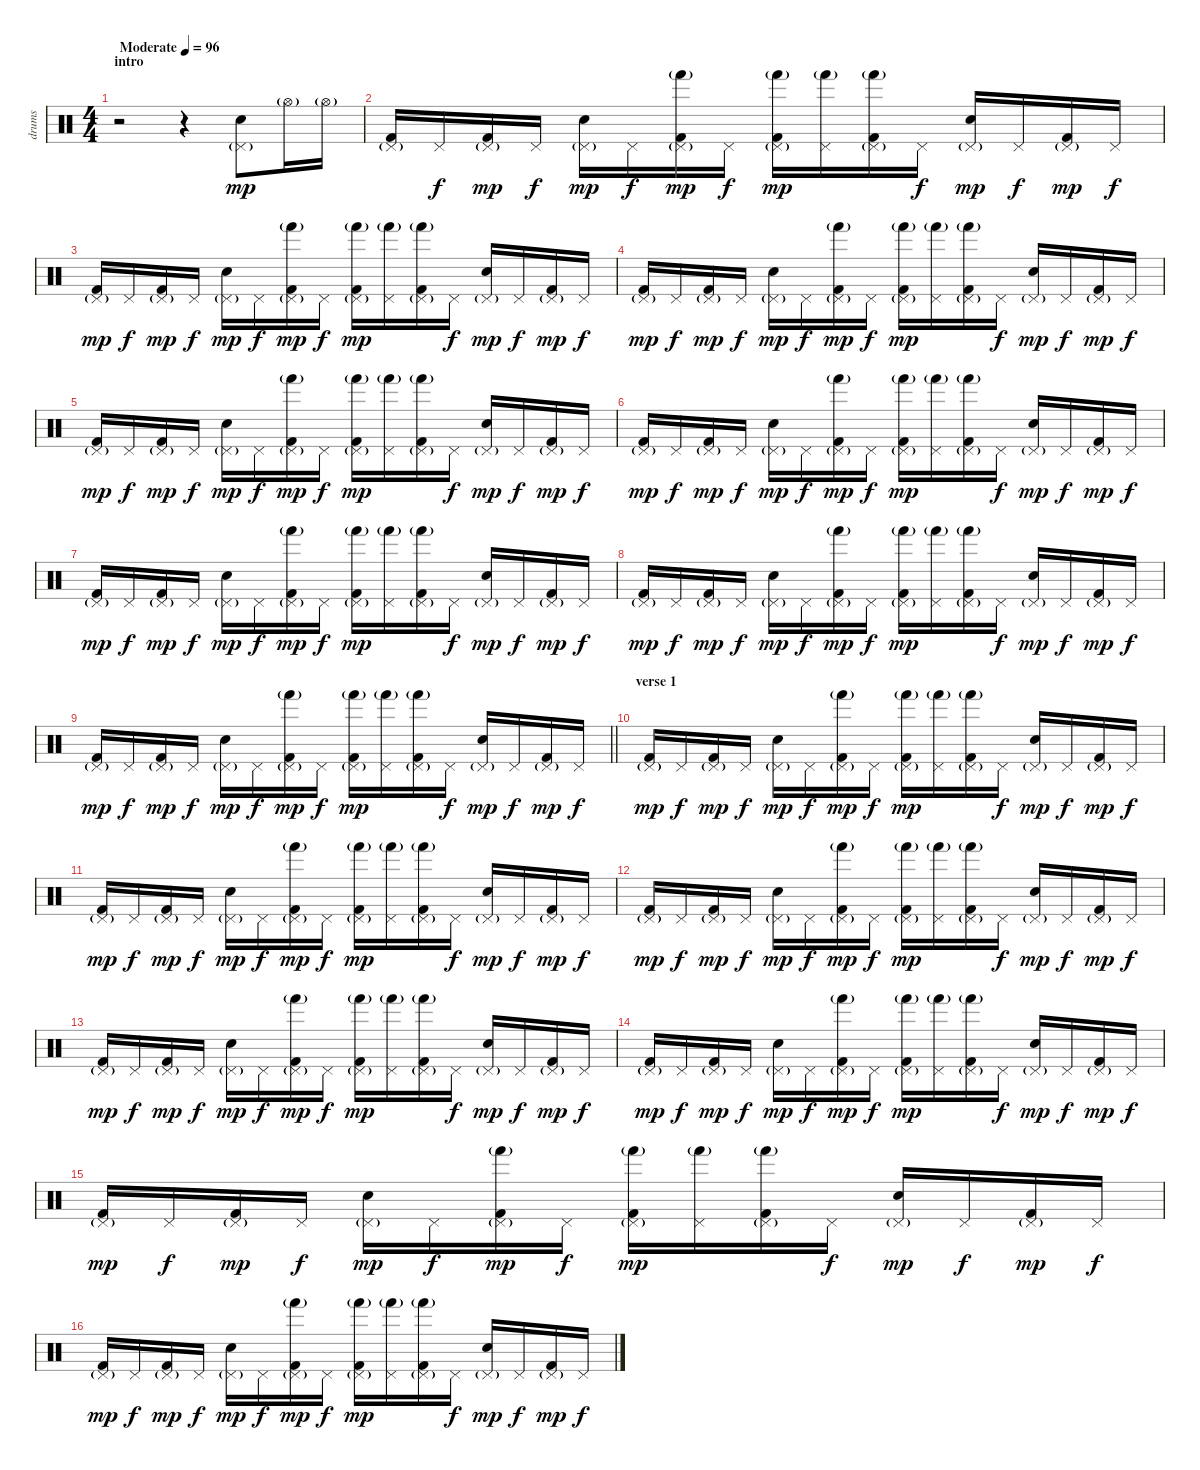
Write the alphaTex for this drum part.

\track ("drums" "drums") {instrument percussion}
\staff {score}
\articulation defaults
\ts (4 4)
\section ("" "intro")
\tempo (96 "Moderate")
\clef neutral
\ks c
r.2{dy mp} r.4 ("Snare (hit) 2" "Pedal Hi-Hat (hit)"{g}).8 "Hi-Hat (open)"{g}.16 "Hi-Hat (open)"{g}.16 |
("Kick (hit) 2" "Pedal Hi-Hat (hit)"{g}).16 "Pedal Hi-Hat (hit)".16{dy f} ("Kick (hit) 2" "Pedal Hi-Hat (hit)"{g}).16{dy mp} "Pedal Hi-Hat (hit)".16{dy f} ("Snare (hit) 2" "Pedal Hi-Hat (hit)"{g}).16{dy mp} "Pedal Hi-Hat (hit)".16{dy f} ("Kick (hit) 2" "Hand (hit)"{g} "Pedal Hi-Hat (hit)"{g}).16{dy mp} "Pedal Hi-Hat (hit)".16{dy f} ("Kick (hit) 2" "Hand (hit)"{g} "Pedal Hi-Hat (hit)"{g}).16{dy mp} ("Hand (hit)"{g} "Pedal Hi-Hat (hit)").16 ("Kick (hit) 2" "Hand (hit)"{g} "Pedal Hi-Hat (hit)"{g}).16 "Pedal Hi-Hat (hit)".16{dy f} ("Snare (hit) 2" "Pedal Hi-Hat (hit)"{g}).16{dy mp} "Pedal Hi-Hat (hit)".16{dy f} ("Kick (hit) 2" "Pedal Hi-Hat (hit)"{g}).16{dy mp} "Pedal Hi-Hat (hit)".16{dy f} |
("Kick (hit) 2" "Pedal Hi-Hat (hit)"{g}).16{dy mp} "Pedal Hi-Hat (hit)".16{dy f} ("Kick (hit) 2" "Pedal Hi-Hat (hit)"{g}).16{dy mp} "Pedal Hi-Hat (hit)".16{dy f} ("Snare (hit) 2" "Pedal Hi-Hat (hit)"{g}).16{dy mp} "Pedal Hi-Hat (hit)".16{dy f} ("Kick (hit) 2" "Hand (hit)"{g} "Pedal Hi-Hat (hit)"{g}).16{dy mp} "Pedal Hi-Hat (hit)".16{dy f} ("Kick (hit) 2" "Hand (hit)"{g} "Pedal Hi-Hat (hit)"{g}).16{dy mp} ("Hand (hit)"{g} "Pedal Hi-Hat (hit)").16 ("Kick (hit) 2" "Hand (hit)"{g} "Pedal Hi-Hat (hit)"{g}).16 "Pedal Hi-Hat (hit)".16{dy f} ("Snare (hit) 2" "Pedal Hi-Hat (hit)"{g}).16{dy mp} "Pedal Hi-Hat (hit)".16{dy f} ("Kick (hit) 2" "Pedal Hi-Hat (hit)"{g}).16{dy mp} "Pedal Hi-Hat (hit)".16{dy f} |
("Kick (hit) 2" "Pedal Hi-Hat (hit)"{g}).16{dy mp} "Pedal Hi-Hat (hit)".16{dy f} ("Kick (hit) 2" "Pedal Hi-Hat (hit)"{g}).16{dy mp} "Pedal Hi-Hat (hit)".16{dy f} ("Snare (hit) 2" "Pedal Hi-Hat (hit)"{g}).16{dy mp} "Pedal Hi-Hat (hit)".16{dy f} ("Kick (hit) 2" "Hand (hit)"{g} "Pedal Hi-Hat (hit)"{g}).16{dy mp} "Pedal Hi-Hat (hit)".16{dy f} ("Kick (hit) 2" "Hand (hit)"{g} "Pedal Hi-Hat (hit)"{g}).16{dy mp} ("Hand (hit)"{g} "Pedal Hi-Hat (hit)").16 ("Kick (hit) 2" "Hand (hit)"{g} "Pedal Hi-Hat (hit)"{g}).16 "Pedal Hi-Hat (hit)".16{dy f} ("Snare (hit) 2" "Pedal Hi-Hat (hit)"{g}).16{dy mp} "Pedal Hi-Hat (hit)".16{dy f} ("Kick (hit) 2" "Pedal Hi-Hat (hit)"{g}).16{dy mp} "Pedal Hi-Hat (hit)".16{dy f} |
("Kick (hit) 2" "Pedal Hi-Hat (hit)"{g}).16{dy mp} "Pedal Hi-Hat (hit)".16{dy f} ("Kick (hit) 2" "Pedal Hi-Hat (hit)"{g}).16{dy mp} "Pedal Hi-Hat (hit)".16{dy f} ("Snare (hit) 2" "Pedal Hi-Hat (hit)"{g}).16{dy mp} "Pedal Hi-Hat (hit)".16{dy f} ("Kick (hit) 2" "Hand (hit)"{g} "Pedal Hi-Hat (hit)"{g}).16{dy mp} "Pedal Hi-Hat (hit)".16{dy f} ("Kick (hit) 2" "Hand (hit)"{g} "Pedal Hi-Hat (hit)"{g}).16{dy mp} ("Hand (hit)"{g} "Pedal Hi-Hat (hit)").16 ("Kick (hit) 2" "Hand (hit)"{g} "Pedal Hi-Hat (hit)"{g}).16 "Pedal Hi-Hat (hit)".16{dy f} ("Snare (hit) 2" "Pedal Hi-Hat (hit)"{g}).16{dy mp} "Pedal Hi-Hat (hit)".16{dy f} ("Kick (hit) 2" "Pedal Hi-Hat (hit)"{g}).16{dy mp} "Pedal Hi-Hat (hit)".16{dy f} |
("Kick (hit) 2" "Pedal Hi-Hat (hit)"{g}).16{dy mp} "Pedal Hi-Hat (hit)".16{dy f} ("Kick (hit) 2" "Pedal Hi-Hat (hit)"{g}).16{dy mp} "Pedal Hi-Hat (hit)".16{dy f} ("Snare (hit) 2" "Pedal Hi-Hat (hit)"{g}).16{dy mp} "Pedal Hi-Hat (hit)".16{dy f} ("Kick (hit) 2" "Hand (hit)"{g} "Pedal Hi-Hat (hit)"{g}).16{dy mp} "Pedal Hi-Hat (hit)".16{dy f} ("Kick (hit) 2" "Hand (hit)"{g} "Pedal Hi-Hat (hit)"{g}).16{dy mp} ("Hand (hit)"{g} "Pedal Hi-Hat (hit)").16 ("Kick (hit) 2" "Hand (hit)"{g} "Pedal Hi-Hat (hit)"{g}).16 "Pedal Hi-Hat (hit)".16{dy f} ("Snare (hit) 2" "Pedal Hi-Hat (hit)"{g}).16{dy mp} "Pedal Hi-Hat (hit)".16{dy f} ("Kick (hit) 2" "Pedal Hi-Hat (hit)"{g}).16{dy mp} "Pedal Hi-Hat (hit)".16{dy f} |
("Kick (hit) 2" "Pedal Hi-Hat (hit)"{g}).16{dy mp} "Pedal Hi-Hat (hit)".16{dy f} ("Kick (hit) 2" "Pedal Hi-Hat (hit)"{g}).16{dy mp} "Pedal Hi-Hat (hit)".16{dy f} ("Snare (hit) 2" "Pedal Hi-Hat (hit)"{g}).16{dy mp} "Pedal Hi-Hat (hit)".16{dy f} ("Kick (hit) 2" "Hand (hit)"{g} "Pedal Hi-Hat (hit)"{g}).16{dy mp} "Pedal Hi-Hat (hit)".16{dy f} ("Kick (hit) 2" "Hand (hit)"{g} "Pedal Hi-Hat (hit)"{g}).16{dy mp} ("Hand (hit)"{g} "Pedal Hi-Hat (hit)").16 ("Kick (hit) 2" "Hand (hit)"{g} "Pedal Hi-Hat (hit)"{g}).16 "Pedal Hi-Hat (hit)".16{dy f} ("Snare (hit) 2" "Pedal Hi-Hat (hit)"{g}).16{dy mp} "Pedal Hi-Hat (hit)".16{dy f} ("Kick (hit) 2" "Pedal Hi-Hat (hit)"{g}).16{dy mp} "Pedal Hi-Hat (hit)".16{dy f} |
("Kick (hit) 2" "Pedal Hi-Hat (hit)"{g}).16{dy mp} "Pedal Hi-Hat (hit)".16{dy f} ("Kick (hit) 2" "Pedal Hi-Hat (hit)"{g}).16{dy mp} "Pedal Hi-Hat (hit)".16{dy f} ("Snare (hit) 2" "Pedal Hi-Hat (hit)"{g}).16{dy mp} "Pedal Hi-Hat (hit)".16{dy f} ("Kick (hit) 2" "Hand (hit)"{g} "Pedal Hi-Hat (hit)"{g}).16{dy mp} "Pedal Hi-Hat (hit)".16{dy f} ("Kick (hit) 2" "Hand (hit)"{g} "Pedal Hi-Hat (hit)"{g}).16{dy mp} ("Hand (hit)"{g} "Pedal Hi-Hat (hit)").16 ("Kick (hit) 2" "Hand (hit)"{g} "Pedal Hi-Hat (hit)"{g}).16 "Pedal Hi-Hat (hit)".16{dy f} ("Snare (hit) 2" "Pedal Hi-Hat (hit)"{g}).16{dy mp} "Pedal Hi-Hat (hit)".16{dy f} ("Kick (hit) 2" "Pedal Hi-Hat (hit)"{g}).16{dy mp} "Pedal Hi-Hat (hit)".16{dy f} |
\barLineRight lightlight
("Kick (hit) 2" "Pedal Hi-Hat (hit)"{g}).16{dy mp} "Pedal Hi-Hat (hit)".16{dy f} ("Kick (hit) 2" "Pedal Hi-Hat (hit)"{g}).16{dy mp} "Pedal Hi-Hat (hit)".16{dy f} ("Snare (hit) 2" "Pedal Hi-Hat (hit)"{g}).16{dy mp} "Pedal Hi-Hat (hit)".16{dy f} ("Kick (hit) 2" "Hand (hit)"{g} "Pedal Hi-Hat (hit)"{g}).16{dy mp} "Pedal Hi-Hat (hit)".16{dy f} ("Kick (hit) 2" "Hand (hit)"{g} "Pedal Hi-Hat (hit)"{g}).16{dy mp} ("Hand (hit)"{g} "Pedal Hi-Hat (hit)").16 ("Kick (hit) 2" "Hand (hit)"{g} "Pedal Hi-Hat (hit)"{g}).16 "Pedal Hi-Hat (hit)".16{dy f} ("Snare (hit) 2" "Pedal Hi-Hat (hit)"{g}).16{dy mp} "Pedal Hi-Hat (hit)".16{dy f} ("Kick (hit) 2" "Pedal Hi-Hat (hit)"{g}).16{dy mp} "Pedal Hi-Hat (hit)".16{dy f} |
\section ("" "verse 1")
("Kick (hit) 2" "Pedal Hi-Hat (hit)"{g}).16{dy mp} "Pedal Hi-Hat (hit)".16{dy f} ("Kick (hit) 2" "Pedal Hi-Hat (hit)"{g}).16{dy mp} "Pedal Hi-Hat (hit)".16{dy f} ("Snare (hit) 2" "Pedal Hi-Hat (hit)"{g}).16{dy mp} "Pedal Hi-Hat (hit)".16{dy f} ("Kick (hit) 2" "Hand (hit)"{g} "Pedal Hi-Hat (hit)"{g}).16{dy mp} "Pedal Hi-Hat (hit)".16{dy f} ("Kick (hit) 2" "Hand (hit)"{g} "Pedal Hi-Hat (hit)"{g}).16{dy mp} ("Hand (hit)"{g} "Pedal Hi-Hat (hit)").16 ("Kick (hit) 2" "Hand (hit)"{g} "Pedal Hi-Hat (hit)"{g}).16 "Pedal Hi-Hat (hit)".16{dy f} ("Snare (hit) 2" "Pedal Hi-Hat (hit)"{g}).16{dy mp} "Pedal Hi-Hat (hit)".16{dy f} ("Kick (hit) 2" "Pedal Hi-Hat (hit)"{g}).16{dy mp} "Pedal Hi-Hat (hit)".16{dy f} |
("Kick (hit) 2" "Pedal Hi-Hat (hit)"{g}).16{dy mp} "Pedal Hi-Hat (hit)".16{dy f} ("Kick (hit) 2" "Pedal Hi-Hat (hit)"{g}).16{dy mp} "Pedal Hi-Hat (hit)".16{dy f} ("Snare (hit) 2" "Pedal Hi-Hat (hit)"{g}).16{dy mp} "Pedal Hi-Hat (hit)".16{dy f} ("Kick (hit) 2" "Hand (hit)"{g} "Pedal Hi-Hat (hit)"{g}).16{dy mp} "Pedal Hi-Hat (hit)".16{dy f} ("Kick (hit) 2" "Hand (hit)"{g} "Pedal Hi-Hat (hit)"{g}).16{dy mp} ("Hand (hit)"{g} "Pedal Hi-Hat (hit)").16 ("Kick (hit) 2" "Hand (hit)"{g} "Pedal Hi-Hat (hit)"{g}).16 "Pedal Hi-Hat (hit)".16{dy f} ("Snare (hit) 2" "Pedal Hi-Hat (hit)"{g}).16{dy mp} "Pedal Hi-Hat (hit)".16{dy f} ("Kick (hit) 2" "Pedal Hi-Hat (hit)"{g}).16{dy mp} "Pedal Hi-Hat (hit)".16{dy f} |
("Kick (hit) 2" "Pedal Hi-Hat (hit)"{g}).16{dy mp} "Pedal Hi-Hat (hit)".16{dy f} ("Kick (hit) 2" "Pedal Hi-Hat (hit)"{g}).16{dy mp} "Pedal Hi-Hat (hit)".16{dy f} ("Snare (hit) 2" "Pedal Hi-Hat (hit)"{g}).16{dy mp} "Pedal Hi-Hat (hit)".16{dy f} ("Kick (hit) 2" "Hand (hit)"{g} "Pedal Hi-Hat (hit)"{g}).16{dy mp} "Pedal Hi-Hat (hit)".16{dy f} ("Kick (hit) 2" "Hand (hit)"{g} "Pedal Hi-Hat (hit)"{g}).16{dy mp} ("Hand (hit)"{g} "Pedal Hi-Hat (hit)").16 ("Kick (hit) 2" "Hand (hit)"{g} "Pedal Hi-Hat (hit)"{g}).16 "Pedal Hi-Hat (hit)".16{dy f} ("Snare (hit) 2" "Pedal Hi-Hat (hit)"{g}).16{dy mp} "Pedal Hi-Hat (hit)".16{dy f} ("Kick (hit) 2" "Pedal Hi-Hat (hit)"{g}).16{dy mp} "Pedal Hi-Hat (hit)".16{dy f} |
("Kick (hit) 2" "Pedal Hi-Hat (hit)"{g}).16{dy mp} "Pedal Hi-Hat (hit)".16{dy f} ("Kick (hit) 2" "Pedal Hi-Hat (hit)"{g}).16{dy mp} "Pedal Hi-Hat (hit)".16{dy f} ("Snare (hit) 2" "Pedal Hi-Hat (hit)"{g}).16{dy mp} "Pedal Hi-Hat (hit)".16{dy f} ("Kick (hit) 2" "Hand (hit)"{g} "Pedal Hi-Hat (hit)"{g}).16{dy mp} "Pedal Hi-Hat (hit)".16{dy f} ("Kick (hit) 2" "Hand (hit)"{g} "Pedal Hi-Hat (hit)"{g}).16{dy mp} ("Hand (hit)"{g} "Pedal Hi-Hat (hit)").16 ("Kick (hit) 2" "Hand (hit)"{g} "Pedal Hi-Hat (hit)"{g}).16 "Pedal Hi-Hat (hit)".16{dy f} ("Snare (hit) 2" "Pedal Hi-Hat (hit)"{g}).16{dy mp} "Pedal Hi-Hat (hit)".16{dy f} ("Kick (hit) 2" "Pedal Hi-Hat (hit)"{g}).16{dy mp} "Pedal Hi-Hat (hit)".16{dy f} |
("Kick (hit) 2" "Pedal Hi-Hat (hit)"{g}).16{dy mp} "Pedal Hi-Hat (hit)".16{dy f} ("Kick (hit) 2" "Pedal Hi-Hat (hit)"{g}).16{dy mp} "Pedal Hi-Hat (hit)".16{dy f} ("Snare (hit) 2" "Pedal Hi-Hat (hit)"{g}).16{dy mp} "Pedal Hi-Hat (hit)".16{dy f} ("Kick (hit) 2" "Hand (hit)"{g} "Pedal Hi-Hat (hit)"{g}).16{dy mp} "Pedal Hi-Hat (hit)".16{dy f} ("Kick (hit) 2" "Hand (hit)"{g} "Pedal Hi-Hat (hit)"{g}).16{dy mp} ("Hand (hit)"{g} "Pedal Hi-Hat (hit)").16 ("Kick (hit) 2" "Hand (hit)"{g} "Pedal Hi-Hat (hit)"{g}).16 "Pedal Hi-Hat (hit)".16{dy f} ("Snare (hit) 2" "Pedal Hi-Hat (hit)"{g}).16{dy mp} "Pedal Hi-Hat (hit)".16{dy f} ("Kick (hit) 2" "Pedal Hi-Hat (hit)"{g}).16{dy mp} "Pedal Hi-Hat (hit)".16{dy f} |
("Kick (hit) 2" "Pedal Hi-Hat (hit)"{g}).16{dy mp} "Pedal Hi-Hat (hit)".16{dy f} ("Kick (hit) 2" "Pedal Hi-Hat (hit)"{g}).16{dy mp} "Pedal Hi-Hat (hit)".16{dy f} ("Snare (hit) 2" "Pedal Hi-Hat (hit)"{g}).16{dy mp} "Pedal Hi-Hat (hit)".16{dy f} ("Kick (hit) 2" "Hand (hit)"{g} "Pedal Hi-Hat (hit)"{g}).16{dy mp} "Pedal Hi-Hat (hit)".16{dy f} ("Kick (hit) 2" "Hand (hit)"{g} "Pedal Hi-Hat (hit)"{g}).16{dy mp} ("Hand (hit)"{g} "Pedal Hi-Hat (hit)").16 ("Kick (hit) 2" "Hand (hit)"{g} "Pedal Hi-Hat (hit)"{g}).16 "Pedal Hi-Hat (hit)".16{dy f} ("Snare (hit) 2" "Pedal Hi-Hat (hit)"{g}).16{dy mp} "Pedal Hi-Hat (hit)".16{dy f} ("Kick (hit) 2" "Pedal Hi-Hat (hit)"{g}).16{dy mp} "Pedal Hi-Hat (hit)".16{dy f} |
("Kick (hit) 2" "Pedal Hi-Hat (hit)"{g}).16{dy mp} "Pedal Hi-Hat (hit)".16{dy f} ("Kick (hit) 2" "Pedal Hi-Hat (hit)"{g}).16{dy mp} "Pedal Hi-Hat (hit)".16{dy f} ("Snare (hit) 2" "Pedal Hi-Hat (hit)"{g}).16{dy mp} "Pedal Hi-Hat (hit)".16{dy f} ("Kick (hit) 2" "Hand (hit)"{g} "Pedal Hi-Hat (hit)"{g}).16{dy mp} "Pedal Hi-Hat (hit)".16{dy f} ("Kick (hit) 2" "Hand (hit)"{g} "Pedal Hi-Hat (hit)"{g}).16{dy mp} ("Hand (hit)"{g} "Pedal Hi-Hat (hit)").16 ("Kick (hit) 2" "Hand (hit)"{g} "Pedal Hi-Hat (hit)"{g}).16 "Pedal Hi-Hat (hit)".16{dy f} ("Snare (hit) 2" "Pedal Hi-Hat (hit)"{g}).16{dy mp} "Pedal Hi-Hat (hit)".16{dy f} ("Kick (hit) 2" "Pedal Hi-Hat (hit)"{g}).16{dy mp} "Pedal Hi-Hat (hit)".16{dy f}
